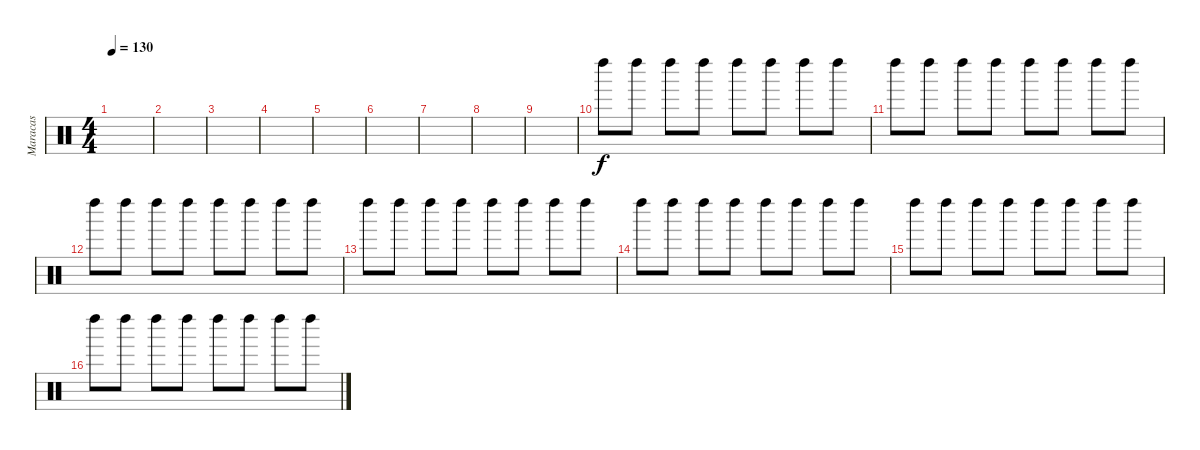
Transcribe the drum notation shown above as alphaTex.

\track ("Maracas" "Maracas") {instrument percussion}
\staff {score}
\articulation defaults
\ts (4 4)
\tempo 130
\clef neutral
\ks c
|
|
|
|
|
|
|
|
|
"Left Maraca (hit)".8 "Left Maraca (hit)".8 "Left Maraca (hit)".8 "Left Maraca (hit)".8 "Left Maraca (hit)".8 "Left Maraca (hit)".8 "Left Maraca (hit)".8 "Left Maraca (hit)".8 |
"Left Maraca (hit)".8 "Left Maraca (hit)".8 "Left Maraca (hit)".8 "Left Maraca (hit)".8 "Left Maraca (hit)".8 "Left Maraca (hit)".8 "Left Maraca (hit)".8 "Left Maraca (hit)".8 |
"Left Maraca (hit)".8 "Left Maraca (hit)".8 "Left Maraca (hit)".8 "Left Maraca (hit)".8 "Left Maraca (hit)".8 "Left Maraca (hit)".8 "Left Maraca (hit)".8 "Left Maraca (hit)".8 |
"Left Maraca (hit)".8 "Left Maraca (hit)".8 "Left Maraca (hit)".8 "Left Maraca (hit)".8 "Left Maraca (hit)".8 "Left Maraca (hit)".8 "Left Maraca (hit)".8 "Left Maraca (hit)".8 |
"Left Maraca (hit)".8 "Left Maraca (hit)".8 "Left Maraca (hit)".8 "Left Maraca (hit)".8 "Left Maraca (hit)".8 "Left Maraca (hit)".8 "Left Maraca (hit)".8 "Left Maraca (hit)".8 |
"Left Maraca (hit)".8 "Left Maraca (hit)".8 "Left Maraca (hit)".8 "Left Maraca (hit)".8 "Left Maraca (hit)".8 "Left Maraca (hit)".8 "Left Maraca (hit)".8 "Left Maraca (hit)".8 |
"Left Maraca (hit)".8 "Left Maraca (hit)".8 "Left Maraca (hit)".8 "Left Maraca (hit)".8 "Left Maraca (hit)".8 "Left Maraca (hit)".8 "Left Maraca (hit)".8 "Left Maraca (hit)".8
